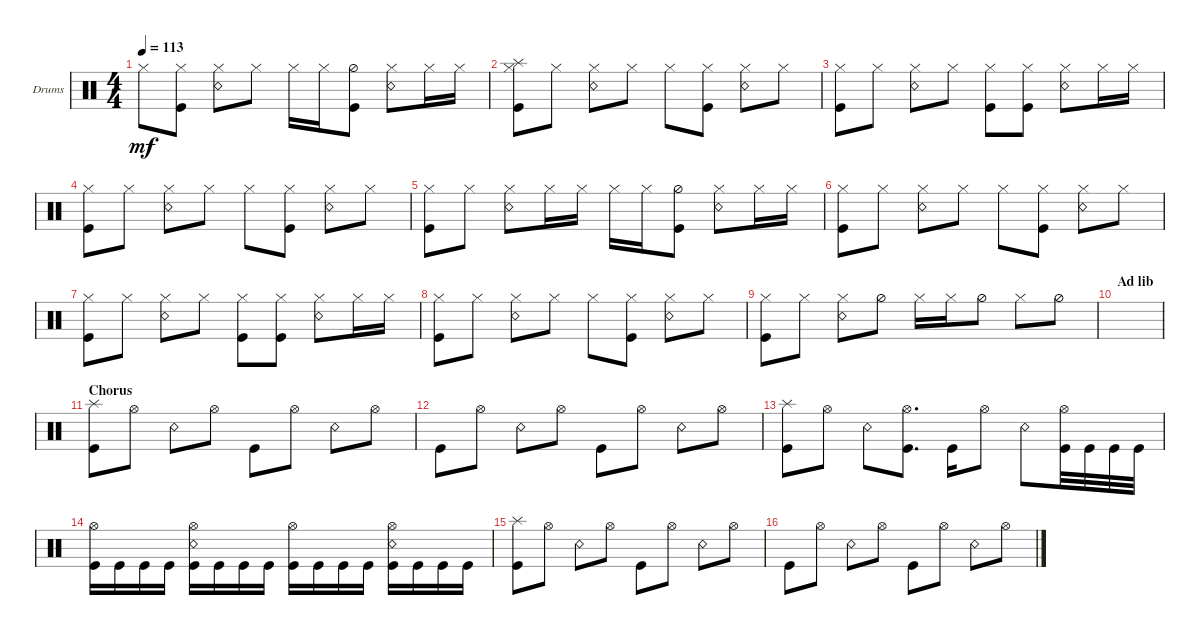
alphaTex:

\defaultSystemsLayout 4
\bracketExtendMode groupsimilarinstruments
\firstSystemTrackNameOrientation horizontal
\otherSystemsTrackNameOrientation horizontal
\track ("Drums" "Drums") {instrument percussion}
\staff {score}
\articulation defaults
\ts (4 4)
\tempo 113
\clef neutral
\ks c "Hi-Hat (closed)".8{dy mf}
("Hi-Hat (closed)" "Kick (hit)").8 ("Snare (rim shot)" "Hi-Hat (closed)").8 "Hi-Hat (closed)".8 "Hi-Hat (closed)".16 "Hi-Hat (closed)".16 ("Hi-Hat (half)" "Kick (hit)").8 ("Snare (rim shot)" "Hi-Hat (closed)").8 "Hi-Hat (closed)".16 "Hi-Hat (closed)".16 |
("Kick (hit)" "Hi-Hat (closed)" "Splash (hit)").8 "Hi-Hat (closed)".8 ("Snare (rim shot)" "Hi-Hat (closed)").8 "Hi-Hat (closed)".8 "Hi-Hat (closed)".8 ("Hi-Hat (closed)" "Kick (hit)").8 ("Snare (rim shot)" "Hi-Hat (closed)").8 "Hi-Hat (closed)".8 |
("Kick (hit)" "Hi-Hat (closed)").8 "Hi-Hat (closed)".8 ("Snare (rim shot)" "Hi-Hat (closed)").8 "Hi-Hat (closed)".8 ("Hi-Hat (closed)" "Kick (hit)").8 ("Hi-Hat (closed)" "Kick (hit)").8 ("Snare (rim shot)" "Hi-Hat (closed)").8 "Hi-Hat (closed)".16 "Hi-Hat (closed)".16 |
("Kick (hit)" "Hi-Hat (closed)").8 "Hi-Hat (closed)".8 ("Snare (rim shot)" "Hi-Hat (closed)").8 "Hi-Hat (closed)".8 "Hi-Hat (closed)".8 ("Hi-Hat (closed)" "Kick (hit)").8 ("Snare (rim shot)" "Hi-Hat (closed)").8 "Hi-Hat (closed)".8 |
("Kick (hit)" "Hi-Hat (closed)").8 "Hi-Hat (closed)".8 ("Snare (rim shot)" "Hi-Hat (closed)").8 "Hi-Hat (closed)".16 "Hi-Hat (closed)".16 "Hi-Hat (closed)".16 "Hi-Hat (closed)".16 ("Hi-Hat (half)" "Kick (hit)").8 ("Snare (rim shot)" "Hi-Hat (closed)").8 "Hi-Hat (closed)".16 "Hi-Hat (closed)".16 |
("Kick (hit)" "Hi-Hat (closed)").8 "Hi-Hat (closed)".8 ("Snare (rim shot)" "Hi-Hat (closed)").8 "Hi-Hat (closed)".8 "Hi-Hat (closed)".8 ("Hi-Hat (closed)" "Kick (hit)").8 ("Snare (rim shot)" "Hi-Hat (closed)").8 "Hi-Hat (closed)".8 |
("Kick (hit)" "Hi-Hat (closed)").8 "Hi-Hat (closed)".8 ("Snare (rim shot)" "Hi-Hat (closed)").8 "Hi-Hat (closed)".8 ("Hi-Hat (closed)" "Kick (hit)").8 ("Hi-Hat (closed)" "Kick (hit)").8 ("Snare (rim shot)" "Hi-Hat (closed)").8 "Hi-Hat (closed)".16 "Hi-Hat (closed)".16 |
("Kick (hit)" "Hi-Hat (closed)").8 "Hi-Hat (closed)".8 ("Snare (rim shot)" "Hi-Hat (closed)").8 "Hi-Hat (closed)".8 "Hi-Hat (closed)".8 ("Hi-Hat (closed)" "Kick (hit)").8 ("Snare (rim shot)" "Hi-Hat (closed)").8 "Hi-Hat (closed)".8 |
("Kick (hit)" "Hi-Hat (closed)").8 "Hi-Hat (closed)".8 ("Snare (rim shot)" "Hi-Hat (closed)").8 "Hi-Hat (half)".8 "Hi-Hat (closed)".16 "Hi-Hat (closed)".16 "Hi-Hat (half)".8 "Hi-Hat (closed)".8 "Hi-Hat (half)".8 |
\section ("" "Ad lib")
|
\section ("" "Chorus")
("Kick (hit)" "Splash (hit)").8 "Hi-Hat (open)".8 "Snare (rim shot)".8 "Hi-Hat (open)".8 "Kick (hit)".8 "Hi-Hat (open)".8 "Snare (rim shot)".8 "Hi-Hat (open)".8 |
"Kick (hit)".8 "Hi-Hat (open)".8 "Snare (rim shot)".8 "Hi-Hat (open)".8 "Kick (hit)".8 "Hi-Hat (open)".8 "Snare (rim shot)".8 "Hi-Hat (open)".8 |
("Kick (hit)" "Splash (hit)").8 "Hi-Hat (open)".8 "Snare (rim shot)".8 ("Kick (hit)" "Hi-Hat (open)").8{d} "Kick (hit)".16 "Hi-Hat (open)".8 "Snare (rim shot)".8 ("Kick (hit)" "Hi-Hat (open)").32 "Kick (hit)".32 "Kick (hit)".32 "Kick (hit)".32 |
("Kick (hit)" "Hi-Hat (open)").16 "Kick (hit)".16 "Kick (hit)".16 "Kick (hit)".16 ("Kick (hit)" "Hi-Hat (open)" "Snare (rim shot)").16 "Kick (hit)".16 "Kick (hit)".16 "Kick (hit)".16 ("Kick (hit)" "Hi-Hat (open)").16 "Kick (hit)".16 "Kick (hit)".16 "Kick (hit)".16 ("Kick (hit)" "Hi-Hat (open)" "Snare (rim shot)").16 "Kick (hit)".16 "Kick (hit)".16 "Kick (hit)".16 |
("Kick (hit)" "Splash (hit)").8 "Hi-Hat (open)".8 "Snare (rim shot)".8 "Hi-Hat (open)".8 "Kick (hit)".8 "Hi-Hat (open)".8 "Snare (rim shot)".8 "Hi-Hat (open)".8 |
"Kick (hit)".8 "Hi-Hat (open)".8 "Snare (rim shot)".8 "Hi-Hat (open)".8 "Kick (hit)".8 "Hi-Hat (open)".8 "Snare (rim shot)".8 "Hi-Hat (open)".8
